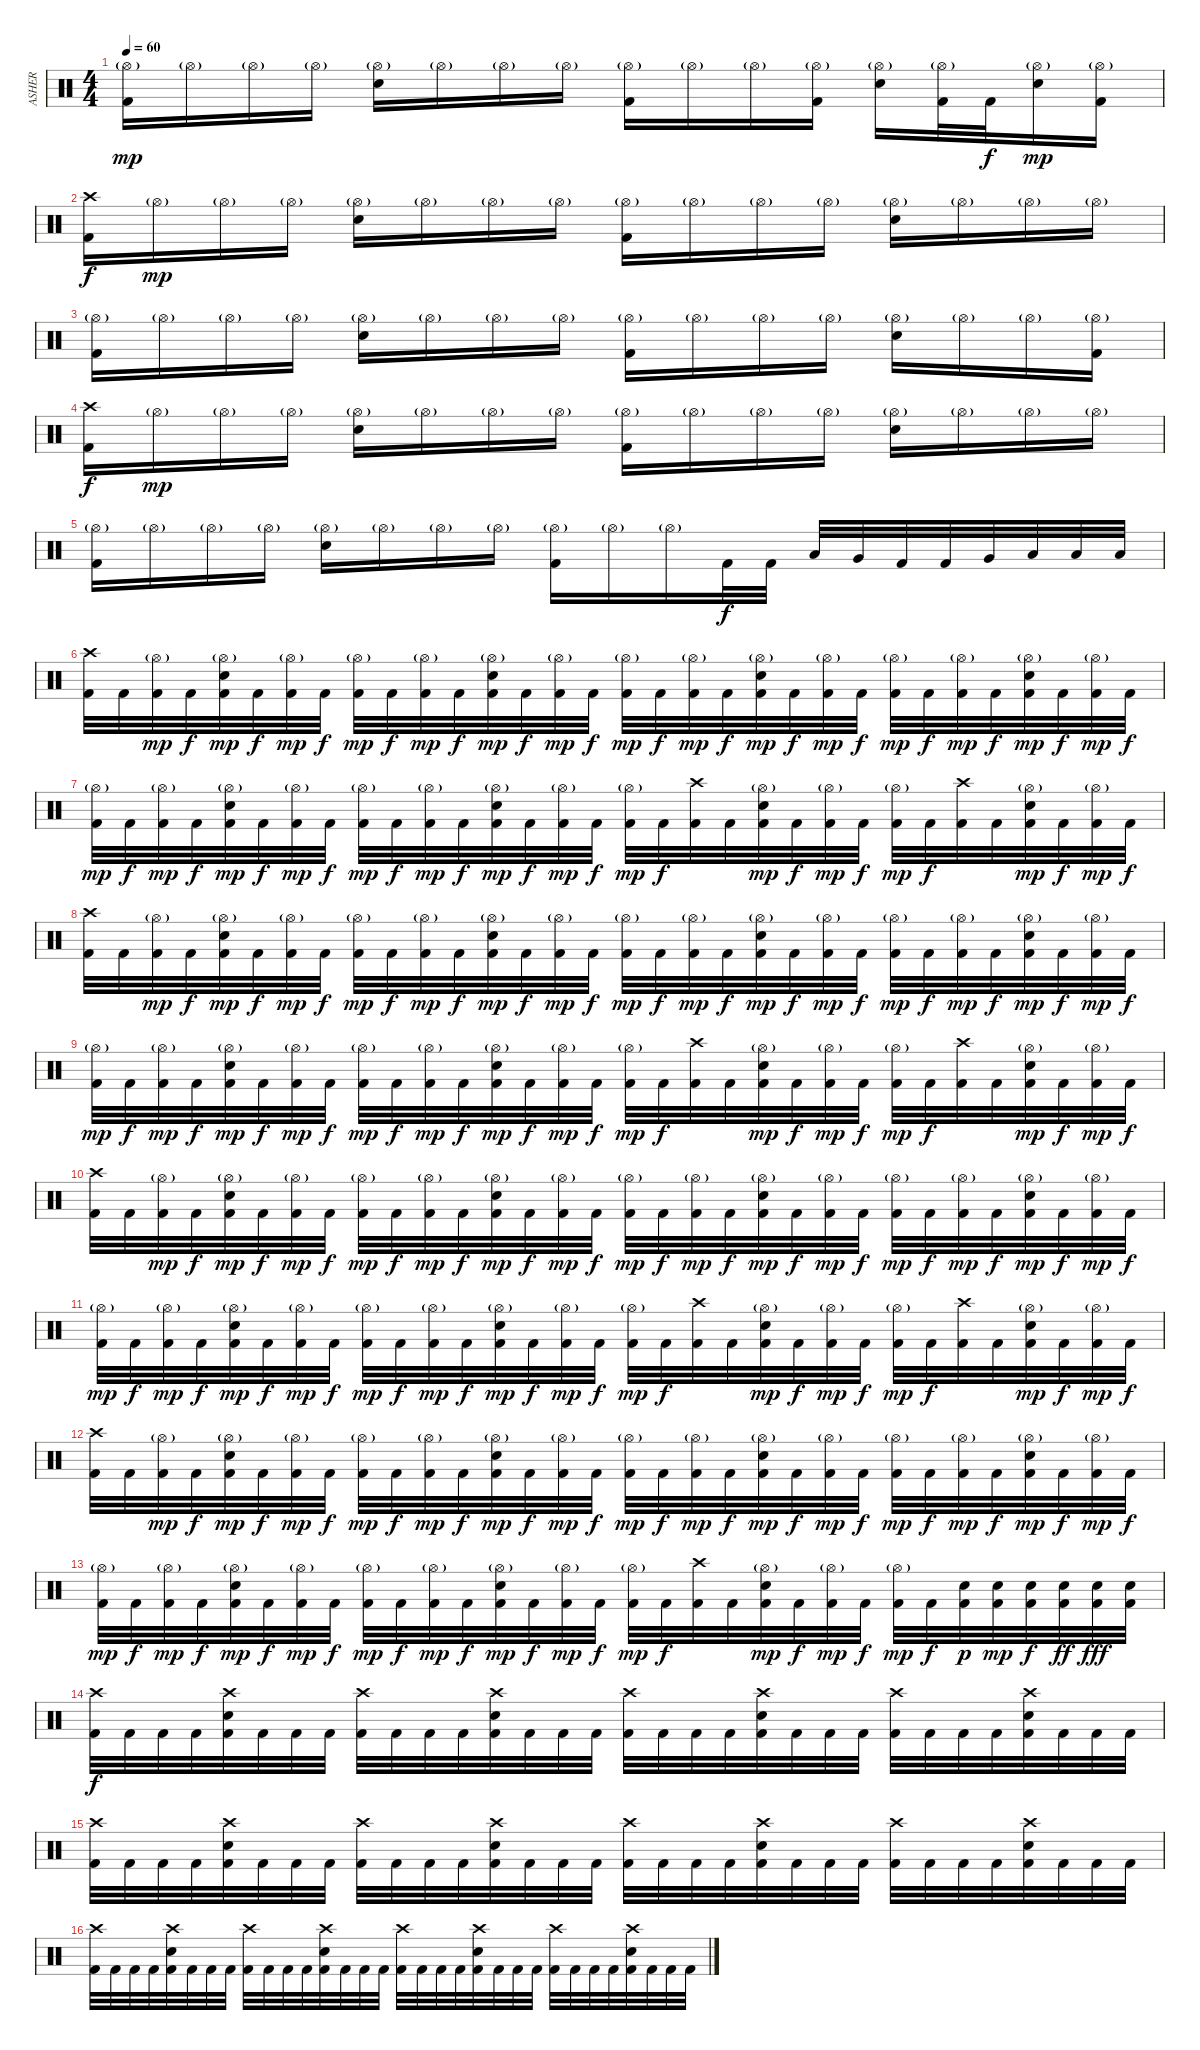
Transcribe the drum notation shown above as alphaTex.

\track ("ASHER" "ASHER") {instrument percussion}
\staff {score}
\articulation defaults
\ts (4 4)
\tempo 60
\clef neutral
\ks c
("Hi-Hat (open)"{g} "Kick (hit) 2").16{dy mp} "Hi-Hat (open)"{g}.16 "Hi-Hat (open)"{g}.16 "Hi-Hat (open)"{g}.16 ("Hi-Hat (open)"{g} "Electric Snare (hit)").16 "Hi-Hat (open)"{g}.16 "Hi-Hat (open)"{g}.16 "Hi-Hat (open)"{g}.16 ("Hi-Hat (open)"{g} "Kick (hit) 2").16 "Hi-Hat (open)"{g}.16 "Hi-Hat (open)"{g}.16 ("Hi-Hat (open)"{g} "Kick (hit) 2").16 ("Hi-Hat (open)"{g} "Electric Snare (hit)").16 ("Hi-Hat (open)"{g} "Kick (hit) 2").32 "Kick (hit) 2".32{dy f} ("Hi-Hat (open)"{g} "Electric Snare (hit)").16{dy mp} ("Hi-Hat (open)"{g} "Kick (hit) 2").16 |
("Crash high (hit)" "Kick (hit) 2").16{dy f} "Hi-Hat (open)"{g}.16{dy mp} "Hi-Hat (open)"{g}.16 "Hi-Hat (open)"{g}.16 ("Hi-Hat (open)"{g} "Electric Snare (hit)").16 "Hi-Hat (open)"{g}.16 "Hi-Hat (open)"{g}.16 "Hi-Hat (open)"{g}.16 ("Hi-Hat (open)"{g} "Kick (hit) 2").16 "Hi-Hat (open)"{g}.16 "Hi-Hat (open)"{g}.16 "Hi-Hat (open)"{g}.16 ("Hi-Hat (open)"{g} "Electric Snare (hit)").16 "Hi-Hat (open)"{g}.16 "Hi-Hat (open)"{g}.16 "Hi-Hat (open)"{g}.16 |
("Hi-Hat (open)"{g} "Kick (hit) 2").16 "Hi-Hat (open)"{g}.16 "Hi-Hat (open)"{g}.16 "Hi-Hat (open)"{g}.16 ("Hi-Hat (open)"{g} "Electric Snare (hit)").16 "Hi-Hat (open)"{g}.16 "Hi-Hat (open)"{g}.16 "Hi-Hat (open)"{g}.16 ("Hi-Hat (open)"{g} "Kick (hit) 2").16 "Hi-Hat (open)"{g}.16 "Hi-Hat (open)"{g}.16 "Hi-Hat (open)"{g}.16 ("Hi-Hat (open)"{g} "Electric Snare (hit)").16 "Hi-Hat (open)"{g}.16 "Hi-Hat (open)"{g}.16 ("Hi-Hat (open)"{g} "Kick (hit) 2").16 |
("Crash high (hit)" "Kick (hit) 2").16{dy f} "Hi-Hat (open)"{g}.16{dy mp} "Hi-Hat (open)"{g}.16 "Hi-Hat (open)"{g}.16 ("Hi-Hat (open)"{g} "Electric Snare (hit)").16 "Hi-Hat (open)"{g}.16 "Hi-Hat (open)"{g}.16 "Hi-Hat (open)"{g}.16 ("Hi-Hat (open)"{g} "Kick (hit) 2").16 "Hi-Hat (open)"{g}.16 "Hi-Hat (open)"{g}.16 "Hi-Hat (open)"{g}.16 ("Hi-Hat (open)"{g} "Electric Snare (hit)").16 "Hi-Hat (open)"{g}.16 "Hi-Hat (open)"{g}.16 "Hi-Hat (open)"{g}.16 |
("Hi-Hat (open)"{g} "Kick (hit) 2").16 "Hi-Hat (open)"{g}.16 "Hi-Hat (open)"{g}.16 "Hi-Hat (open)"{g}.16 ("Hi-Hat (open)"{g} "Electric Snare (hit)").16 "Hi-Hat (open)"{g}.16 "Hi-Hat (open)"{g}.16 "Hi-Hat (open)"{g}.16 ("Hi-Hat (open)"{g} "Kick (hit) 2").16 "Hi-Hat (open)"{g}.16 "Hi-Hat (open)"{g}.16 "Kick (hit) 2".32{dy f} "Kick (hit) 2".32 "Low Tom (hit)".32 "Very Low Tom (hit)".32 "Kick (hit) 2".32 "Kick (hit) 2".32 "Very Low Tom (hit)".32 "Low Floor Tom (hit)".32 "Low Floor Tom (hit)".32 "Low Floor Tom (hit)".32 |
("Crash high (hit)" "Kick (hit) 2").32 "Kick (hit) 2".32 ("Hi-Hat (open)"{g} "Kick (hit) 2").32{dy mp} "Kick (hit) 2".32{dy f} ("Hi-Hat (open)"{g} "Electric Snare (hit)" "Kick (hit) 2").32{dy mp} "Kick (hit) 2".32{dy f} ("Hi-Hat (open)"{g} "Kick (hit) 2").32{dy mp} "Kick (hit) 2".32{dy f} ("Hi-Hat (open)"{g} "Kick (hit) 2").32{dy mp} "Kick (hit) 2".32{dy f} ("Hi-Hat (open)"{g} "Kick (hit) 2").32{dy mp} "Kick (hit) 2".32{dy f} ("Hi-Hat (open)"{g} "Electric Snare (hit)" "Kick (hit) 2").32{dy mp} "Kick (hit) 2".32{dy f} ("Hi-Hat (open)"{g} "Kick (hit) 2").32{dy mp} "Kick (hit) 2".32{dy f} ("Hi-Hat (open)"{g} "Kick (hit) 2").32{dy mp} "Kick (hit) 2".32{dy f} ("Hi-Hat (open)"{g} "Kick (hit) 2").32{dy mp} "Kick (hit) 2".32{dy f} ("Hi-Hat (open)"{g} "Electric Snare (hit)" "Kick (hit) 2").32{dy mp} "Kick (hit) 2".32{dy f} ("Hi-Hat (open)"{g} "Kick (hit) 2").32{dy mp} "Kick (hit) 2".32{dy f} ("Hi-Hat (open)"{g} "Kick (hit) 2").32{dy mp} "Kick (hit) 2".32{dy f} ("Hi-Hat (open)"{g} "Kick (hit) 2").32{dy mp} "Kick (hit) 2".32{dy f} ("Hi-Hat (open)"{g} "Electric Snare (hit)" "Kick (hit) 2").32{dy mp} "Kick (hit) 2".32{dy f} ("Hi-Hat (open)"{g} "Kick (hit) 2").32{dy mp} "Kick (hit) 2".32{dy f} |
("Hi-Hat (open)"{g} "Kick (hit) 2").32{dy mp} "Kick (hit) 2".32{dy f} ("Hi-Hat (open)"{g} "Kick (hit) 2").32{dy mp} "Kick (hit) 2".32{dy f} ("Hi-Hat (open)"{g} "Electric Snare (hit)" "Kick (hit) 2").32{dy mp} "Kick (hit) 2".32{dy f} ("Hi-Hat (open)"{g} "Kick (hit) 2").32{dy mp} "Kick (hit) 2".32{dy f} ("Hi-Hat (open)"{g} "Kick (hit) 2").32{dy mp} "Kick (hit) 2".32{dy f} ("Hi-Hat (open)"{g} "Kick (hit) 2").32{dy mp} "Kick (hit) 2".32{dy f} ("Hi-Hat (open)"{g} "Electric Snare (hit)" "Kick (hit) 2").32{dy mp} "Kick (hit) 2".32{dy f} ("Hi-Hat (open)"{g} "Kick (hit) 2").32{dy mp} "Kick (hit) 2".32{dy f} ("Hi-Hat (open)"{g} "Kick (hit) 2").32{dy mp} "Kick (hit) 2".32{dy f} ("Crash high (hit)" "Kick (hit) 2").32 "Kick (hit) 2".32 ("Hi-Hat (open)"{g} "Electric Snare (hit)" "Kick (hit) 2").32{dy mp} "Kick (hit) 2".32{dy f} ("Hi-Hat (open)"{g} "Kick (hit) 2").32{dy mp} "Kick (hit) 2".32{dy f} ("Hi-Hat (open)"{g} "Kick (hit) 2").32{dy mp} "Kick (hit) 2".32{dy f} ("Crash high (hit)" "Kick (hit) 2").32 "Kick (hit) 2".32 ("Hi-Hat (open)"{g} "Electric Snare (hit)" "Kick (hit) 2").32{dy mp} "Kick (hit) 2".32{dy f} ("Hi-Hat (open)"{g} "Kick (hit) 2").32{dy mp} "Kick (hit) 2".32{dy f} |
("Crash high (hit)" "Kick (hit) 2").32 "Kick (hit) 2".32 ("Hi-Hat (open)"{g} "Kick (hit) 2").32{dy mp} "Kick (hit) 2".32{dy f} ("Hi-Hat (open)"{g} "Electric Snare (hit)" "Kick (hit) 2").32{dy mp} "Kick (hit) 2".32{dy f} ("Hi-Hat (open)"{g} "Kick (hit) 2").32{dy mp} "Kick (hit) 2".32{dy f} ("Hi-Hat (open)"{g} "Kick (hit) 2").32{dy mp} "Kick (hit) 2".32{dy f} ("Hi-Hat (open)"{g} "Kick (hit) 2").32{dy mp} "Kick (hit) 2".32{dy f} ("Hi-Hat (open)"{g} "Electric Snare (hit)" "Kick (hit) 2").32{dy mp} "Kick (hit) 2".32{dy f} ("Hi-Hat (open)"{g} "Kick (hit) 2").32{dy mp} "Kick (hit) 2".32{dy f} ("Hi-Hat (open)"{g} "Kick (hit) 2").32{dy mp} "Kick (hit) 2".32{dy f} ("Hi-Hat (open)"{g} "Kick (hit) 2").32{dy mp} "Kick (hit) 2".32{dy f} ("Hi-Hat (open)"{g} "Electric Snare (hit)" "Kick (hit) 2").32{dy mp} "Kick (hit) 2".32{dy f} ("Hi-Hat (open)"{g} "Kick (hit) 2").32{dy mp} "Kick (hit) 2".32{dy f} ("Hi-Hat (open)"{g} "Kick (hit) 2").32{dy mp} "Kick (hit) 2".32{dy f} ("Hi-Hat (open)"{g} "Kick (hit) 2").32{dy mp} "Kick (hit) 2".32{dy f} ("Hi-Hat (open)"{g} "Electric Snare (hit)" "Kick (hit) 2").32{dy mp} "Kick (hit) 2".32{dy f} ("Hi-Hat (open)"{g} "Kick (hit) 2").32{dy mp} "Kick (hit) 2".32{dy f} |
("Hi-Hat (open)"{g} "Kick (hit) 2").32{dy mp} "Kick (hit) 2".32{dy f} ("Hi-Hat (open)"{g} "Kick (hit) 2").32{dy mp} "Kick (hit) 2".32{dy f} ("Hi-Hat (open)"{g} "Electric Snare (hit)" "Kick (hit) 2").32{dy mp} "Kick (hit) 2".32{dy f} ("Hi-Hat (open)"{g} "Kick (hit) 2").32{dy mp} "Kick (hit) 2".32{dy f} ("Hi-Hat (open)"{g} "Kick (hit) 2").32{dy mp} "Kick (hit) 2".32{dy f} ("Hi-Hat (open)"{g} "Kick (hit) 2").32{dy mp} "Kick (hit) 2".32{dy f} ("Hi-Hat (open)"{g} "Electric Snare (hit)" "Kick (hit) 2").32{dy mp} "Kick (hit) 2".32{dy f} ("Hi-Hat (open)"{g} "Kick (hit) 2").32{dy mp} "Kick (hit) 2".32{dy f} ("Hi-Hat (open)"{g} "Kick (hit) 2").32{dy mp} "Kick (hit) 2".32{dy f} ("Crash high (hit)" "Kick (hit) 2").32 "Kick (hit) 2".32 ("Hi-Hat (open)"{g} "Electric Snare (hit)" "Kick (hit) 2").32{dy mp} "Kick (hit) 2".32{dy f} ("Hi-Hat (open)"{g} "Kick (hit) 2").32{dy mp} "Kick (hit) 2".32{dy f} ("Hi-Hat (open)"{g} "Kick (hit) 2").32{dy mp} "Kick (hit) 2".32{dy f} ("Crash high (hit)" "Kick (hit) 2").32 "Kick (hit) 2".32 ("Hi-Hat (open)"{g} "Electric Snare (hit)" "Kick (hit) 2").32{dy mp} "Kick (hit) 2".32{dy f} ("Hi-Hat (open)"{g} "Kick (hit) 2").32{dy mp} "Kick (hit) 2".32{dy f} |
("Crash high (hit)" "Kick (hit) 2").32 "Kick (hit) 2".32 ("Hi-Hat (open)"{g} "Kick (hit) 2").32{dy mp} "Kick (hit) 2".32{dy f} ("Hi-Hat (open)"{g} "Electric Snare (hit)" "Kick (hit) 2").32{dy mp} "Kick (hit) 2".32{dy f} ("Hi-Hat (open)"{g} "Kick (hit) 2").32{dy mp} "Kick (hit) 2".32{dy f} ("Hi-Hat (open)"{g} "Kick (hit) 2").32{dy mp} "Kick (hit) 2".32{dy f} ("Hi-Hat (open)"{g} "Kick (hit) 2").32{dy mp} "Kick (hit) 2".32{dy f} ("Hi-Hat (open)"{g} "Electric Snare (hit)" "Kick (hit) 2").32{dy mp} "Kick (hit) 2".32{dy f} ("Hi-Hat (open)"{g} "Kick (hit) 2").32{dy mp} "Kick (hit) 2".32{dy f} ("Hi-Hat (open)"{g} "Kick (hit) 2").32{dy mp} "Kick (hit) 2".32{dy f} ("Hi-Hat (open)"{g} "Kick (hit) 2").32{dy mp} "Kick (hit) 2".32{dy f} ("Hi-Hat (open)"{g} "Electric Snare (hit)" "Kick (hit) 2").32{dy mp} "Kick (hit) 2".32{dy f} ("Hi-Hat (open)"{g} "Kick (hit) 2").32{dy mp} "Kick (hit) 2".32{dy f} ("Hi-Hat (open)"{g} "Kick (hit) 2").32{dy mp} "Kick (hit) 2".32{dy f} ("Hi-Hat (open)"{g} "Kick (hit) 2").32{dy mp} "Kick (hit) 2".32{dy f} ("Hi-Hat (open)"{g} "Electric Snare (hit)" "Kick (hit) 2").32{dy mp} "Kick (hit) 2".32{dy f} ("Hi-Hat (open)"{g} "Kick (hit) 2").32{dy mp} "Kick (hit) 2".32{dy f} |
("Hi-Hat (open)"{g} "Kick (hit) 2").32{dy mp} "Kick (hit) 2".32{dy f} ("Hi-Hat (open)"{g} "Kick (hit) 2").32{dy mp} "Kick (hit) 2".32{dy f} ("Hi-Hat (open)"{g} "Electric Snare (hit)" "Kick (hit) 2").32{dy mp} "Kick (hit) 2".32{dy f} ("Hi-Hat (open)"{g} "Kick (hit) 2").32{dy mp} "Kick (hit) 2".32{dy f} ("Hi-Hat (open)"{g} "Kick (hit) 2").32{dy mp} "Kick (hit) 2".32{dy f} ("Hi-Hat (open)"{g} "Kick (hit) 2").32{dy mp} "Kick (hit) 2".32{dy f} ("Hi-Hat (open)"{g} "Electric Snare (hit)" "Kick (hit) 2").32{dy mp} "Kick (hit) 2".32{dy f} ("Hi-Hat (open)"{g} "Kick (hit) 2").32{dy mp} "Kick (hit) 2".32{dy f} ("Hi-Hat (open)"{g} "Kick (hit) 2").32{dy mp} "Kick (hit) 2".32{dy f} ("Crash high (hit)" "Kick (hit) 2").32 "Kick (hit) 2".32 ("Hi-Hat (open)"{g} "Electric Snare (hit)" "Kick (hit) 2").32{dy mp} "Kick (hit) 2".32{dy f} ("Hi-Hat (open)"{g} "Kick (hit) 2").32{dy mp} "Kick (hit) 2".32{dy f} ("Hi-Hat (open)"{g} "Kick (hit) 2").32{dy mp} "Kick (hit) 2".32{dy f} ("Crash high (hit)" "Kick (hit) 2").32 "Kick (hit) 2".32 ("Hi-Hat (open)"{g} "Electric Snare (hit)" "Kick (hit) 2").32{dy mp} "Kick (hit) 2".32{dy f} ("Hi-Hat (open)"{g} "Kick (hit) 2").32{dy mp} "Kick (hit) 2".32{dy f} |
("Crash high (hit)" "Kick (hit) 2").32 "Kick (hit) 2".32 ("Hi-Hat (open)"{g} "Kick (hit) 2").32{dy mp} "Kick (hit) 2".32{dy f} ("Hi-Hat (open)"{g} "Electric Snare (hit)" "Kick (hit) 2").32{dy mp} "Kick (hit) 2".32{dy f} ("Hi-Hat (open)"{g} "Kick (hit) 2").32{dy mp} "Kick (hit) 2".32{dy f} ("Hi-Hat (open)"{g} "Kick (hit) 2").32{dy mp} "Kick (hit) 2".32{dy f} ("Hi-Hat (open)"{g} "Kick (hit) 2").32{dy mp} "Kick (hit) 2".32{dy f} ("Hi-Hat (open)"{g} "Electric Snare (hit)" "Kick (hit) 2").32{dy mp} "Kick (hit) 2".32{dy f} ("Hi-Hat (open)"{g} "Kick (hit) 2").32{dy mp} "Kick (hit) 2".32{dy f} ("Hi-Hat (open)"{g} "Kick (hit) 2").32{dy mp} "Kick (hit) 2".32{dy f} ("Hi-Hat (open)"{g} "Kick (hit) 2").32{dy mp} "Kick (hit) 2".32{dy f} ("Hi-Hat (open)"{g} "Electric Snare (hit)" "Kick (hit) 2").32{dy mp} "Kick (hit) 2".32{dy f} ("Hi-Hat (open)"{g} "Kick (hit) 2").32{dy mp} "Kick (hit) 2".32{dy f} ("Hi-Hat (open)"{g} "Kick (hit) 2").32{dy mp} "Kick (hit) 2".32{dy f} ("Hi-Hat (open)"{g} "Kick (hit) 2").32{dy mp} "Kick (hit) 2".32{dy f} ("Hi-Hat (open)"{g} "Electric Snare (hit)" "Kick (hit) 2").32{dy mp} "Kick (hit) 2".32{dy f} ("Hi-Hat (open)"{g} "Kick (hit) 2").32{dy mp} "Kick (hit) 2".32{dy f} |
("Hi-Hat (open)"{g} "Kick (hit) 2").32{dy mp} "Kick (hit) 2".32{dy f} ("Hi-Hat (open)"{g} "Kick (hit) 2").32{dy mp} "Kick (hit) 2".32{dy f} ("Hi-Hat (open)"{g} "Electric Snare (hit)" "Kick (hit) 2").32{dy mp} "Kick (hit) 2".32{dy f} ("Hi-Hat (open)"{g} "Kick (hit) 2").32{dy mp} "Kick (hit) 2".32{dy f} ("Hi-Hat (open)"{g} "Kick (hit) 2").32{dy mp} "Kick (hit) 2".32{dy f} ("Hi-Hat (open)"{g} "Kick (hit) 2").32{dy mp} "Kick (hit) 2".32{dy f} ("Hi-Hat (open)"{g} "Electric Snare (hit)" "Kick (hit) 2").32{dy mp} "Kick (hit) 2".32{dy f} ("Hi-Hat (open)"{g} "Kick (hit) 2").32{dy mp} "Kick (hit) 2".32{dy f} ("Hi-Hat (open)"{g} "Kick (hit) 2").32{dy mp} "Kick (hit) 2".32{dy f} ("Crash high (hit)" "Kick (hit) 2").32 "Kick (hit) 2".32 ("Hi-Hat (open)"{g} "Electric Snare (hit)" "Kick (hit) 2").32{dy mp} "Kick (hit) 2".32{dy f} ("Hi-Hat (open)"{g} "Kick (hit) 2").32{dy mp} "Kick (hit) 2".32{dy f} ("Hi-Hat (open)"{g} "Kick (hit) 2").32{dy mp} "Kick (hit) 2".32{dy f} ("Electric Snare (hit)" "Kick (hit) 2").32{dy p} ("Electric Snare (hit)" "Kick (hit) 2").32{dy mp} ("Electric Snare (hit)" "Kick (hit) 2").32{dy f} ("Electric Snare (hit)" "Kick (hit) 2").32{dy ff} ("Electric Snare (hit)" "Kick (hit) 2").32{dy fff} ("Electric Snare (hit)" "Kick (hit) 2").32 |
("Crash high (hit)" "Kick (hit) 2").32{dy f} "Kick (hit) 2".32 "Kick (hit) 2".32 "Kick (hit) 2".32 ("Crash high (hit)" "Electric Snare (hit)" "Kick (hit) 2").32 "Kick (hit) 2".32 "Kick (hit) 2".32 "Kick (hit) 2".32 ("Crash high (hit)" "Kick (hit) 2").32 "Kick (hit) 2".32 "Kick (hit) 2".32 "Kick (hit) 2".32 ("Crash high (hit)" "Electric Snare (hit)" "Kick (hit) 2").32 "Kick (hit) 2".32 "Kick (hit) 2".32 "Kick (hit) 2".32 ("Crash high (hit)" "Kick (hit) 2").32 "Kick (hit) 2".32 "Kick (hit) 2".32 "Kick (hit) 2".32 ("Crash high (hit)" "Electric Snare (hit)" "Kick (hit) 2").32 "Kick (hit) 2".32 "Kick (hit) 2".32 "Kick (hit) 2".32 ("Crash high (hit)" "Kick (hit) 2").32 "Kick (hit) 2".32 "Kick (hit) 2".32 "Kick (hit) 2".32 ("Crash high (hit)" "Electric Snare (hit)" "Kick (hit) 2").32 "Kick (hit) 2".32 "Kick (hit) 2".32 "Kick (hit) 2".32 |
("Crash high (hit)" "Kick (hit) 2").32 "Kick (hit) 2".32 "Kick (hit) 2".32 "Kick (hit) 2".32 ("Crash high (hit)" "Electric Snare (hit)" "Kick (hit) 2").32 "Kick (hit) 2".32 "Kick (hit) 2".32 "Kick (hit) 2".32 ("Crash high (hit)" "Kick (hit) 2").32 "Kick (hit) 2".32 "Kick (hit) 2".32 "Kick (hit) 2".32 ("Crash high (hit)" "Electric Snare (hit)" "Kick (hit) 2").32 "Kick (hit) 2".32 "Kick (hit) 2".32 "Kick (hit) 2".32 ("Crash high (hit)" "Kick (hit) 2").32 "Kick (hit) 2".32 "Kick (hit) 2".32 "Kick (hit) 2".32 ("Crash high (hit)" "Electric Snare (hit)" "Kick (hit) 2").32 "Kick (hit) 2".32 "Kick (hit) 2".32 "Kick (hit) 2".32 ("Crash high (hit)" "Kick (hit) 2").32 "Kick (hit) 2".32 "Kick (hit) 2".32 "Kick (hit) 2".32 ("Crash high (hit)" "Electric Snare (hit)" "Kick (hit) 2").32 "Kick (hit) 2".32 "Kick (hit) 2".32 "Kick (hit) 2".32 |
("Crash high (hit)" "Kick (hit) 2").32 "Kick (hit) 2".32 "Kick (hit) 2".32 "Kick (hit) 2".32 ("Crash high (hit)" "Electric Snare (hit)" "Kick (hit) 2").32 "Kick (hit) 2".32 "Kick (hit) 2".32 "Kick (hit) 2".32 ("Crash high (hit)" "Kick (hit) 2").32 "Kick (hit) 2".32 "Kick (hit) 2".32 "Kick (hit) 2".32 ("Crash high (hit)" "Electric Snare (hit)" "Kick (hit) 2").32 "Kick (hit) 2".32 "Kick (hit) 2".32 "Kick (hit) 2".32 ("Crash high (hit)" "Kick (hit) 2").32 "Kick (hit) 2".32 "Kick (hit) 2".32 "Kick (hit) 2".32 ("Crash high (hit)" "Electric Snare (hit)" "Kick (hit) 2").32 "Kick (hit) 2".32 "Kick (hit) 2".32 "Kick (hit) 2".32 ("Crash high (hit)" "Kick (hit) 2").32 "Kick (hit) 2".32 "Kick (hit) 2".32 "Kick (hit) 2".32 ("Crash high (hit)" "Electric Snare (hit)" "Kick (hit) 2").32 "Kick (hit) 2".32 "Kick (hit) 2".32 "Kick (hit) 2".32
